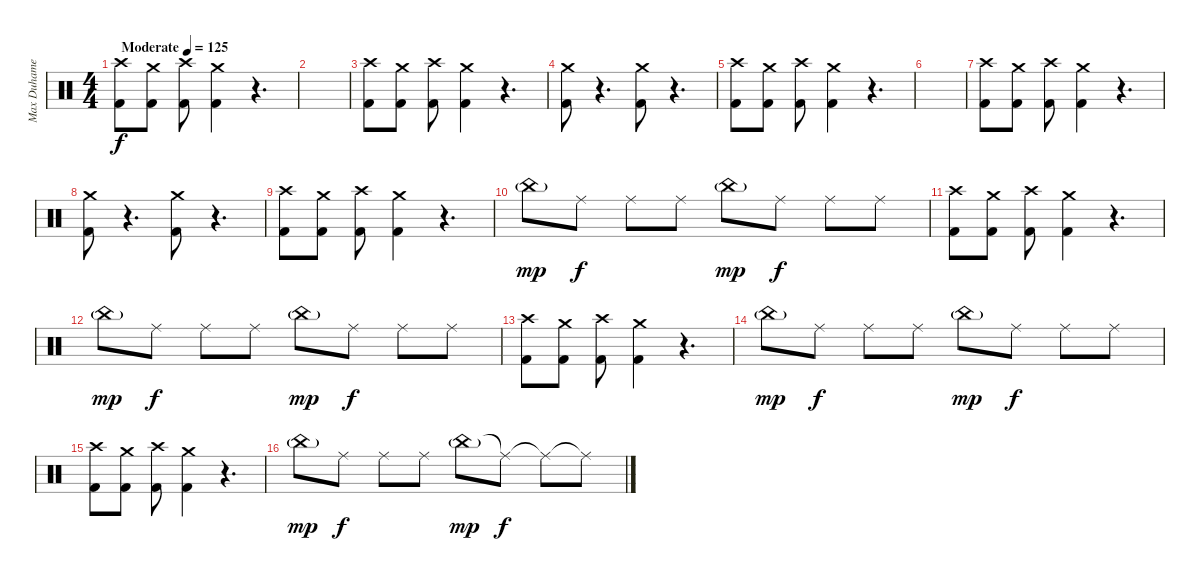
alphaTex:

\track ("Max Duhamel (Drums)" "Max Duhame") {instrument percussion}
\staff {score}
\articulation defaults
\ts (4 4)
\tempo (125 "Moderate")
\clef neutral
\ks c
("Crash high (hit)" "Kick (hit) 2").8{dy f} ("Crash medium (hit)" "Kick (hit) 2").8 ("Crash high (hit)" "Kick (hit) 2").8 ("Crash medium (hit)" "Kick (hit) 2").4 r.4{d} |
|
("Crash high (hit)" "Kick (hit) 2").8 ("Crash medium (hit)" "Kick (hit) 2").8 ("Crash high (hit)" "Kick (hit) 2").8 ("Crash medium (hit)" "Kick (hit) 2").4 r.4{d} |
("Crash medium (hit)" "Kick (hit) 2").8 r.4{d} ("Crash medium (hit)" "Kick (hit) 2").8 r.4{d} |
("Crash high (hit)" "Kick (hit) 2").8 ("Crash medium (hit)" "Kick (hit) 2").8 ("Crash high (hit)" "Kick (hit) 2").8 ("Crash medium (hit)" "Kick (hit) 2").4 r.4{d} |
|
("Crash high (hit)" "Kick (hit) 2").8 ("Crash medium (hit)" "Kick (hit) 2").8 ("Crash high (hit)" "Kick (hit) 2").8 ("Crash medium (hit)" "Kick (hit) 2").4 r.4{d} |
("Crash medium (hit)" "Kick (hit) 2").8 r.4{d} ("Crash medium (hit)" "Kick (hit) 2").8 r.4{d} |
("Crash high (hit)" "Kick (hit) 2").8 ("Crash medium (hit)" "Kick (hit) 2").8 ("Crash high (hit)" "Kick (hit) 2").8 ("Crash medium (hit)" "Kick (hit) 2").4 r.4{d} |
"China (hit)"{g}.8{dy mp} "Ride (middle)".8{dy f} "Ride (middle)".8 "Ride (middle)".8 "China (hit)"{g}.8{dy mp} "Ride (middle)".8{dy f} "Ride (middle)".8 "Ride (middle)".8 |
("Crash high (hit)" "Kick (hit) 2").8 ("Crash medium (hit)" "Kick (hit) 2").8 ("Crash high (hit)" "Kick (hit) 2").8 ("Crash medium (hit)" "Kick (hit) 2").4 r.4{d} |
"China (hit)"{g}.8{dy mp} "Ride (middle)".8{dy f} "Ride (middle)".8 "Ride (middle)".8 "China (hit)"{g}.8{dy mp} "Ride (middle)".8{dy f} "Ride (middle)".8 "Ride (middle)".8 |
("Crash high (hit)" "Kick (hit) 2").8 ("Crash medium (hit)" "Kick (hit) 2").8 ("Crash high (hit)" "Kick (hit) 2").8 ("Crash medium (hit)" "Kick (hit) 2").4 r.4{d} |
"China (hit)"{g}.8{dy mp} "Ride (middle)".8{dy f} "Ride (middle)".8 "Ride (middle)".8 "China (hit)"{g}.8{dy mp} "Ride (middle)".8{dy f} "Ride (middle)".8 "Ride (middle)".8 |
("Crash high (hit)" "Kick (hit) 2").8 ("Crash medium (hit)" "Kick (hit) 2").8 ("Crash high (hit)" "Kick (hit) 2").8 ("Crash medium (hit)" "Kick (hit) 2").4 r.4{d} |
"China (hit)"{g}.8{dy mp} "Ride (middle)".8{dy f} "Ride (middle)".8 "Ride (middle)".8 "China (hit)"{g}.8{dy mp} "Ride (middle)"{t}.8{dy f} "Ride (middle)"{t}.8 "Ride (middle)"{t}.8
